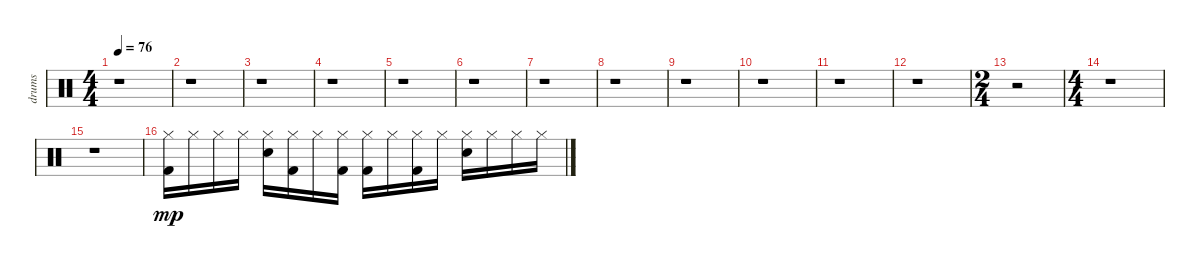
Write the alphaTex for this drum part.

\track ("drums" "drums") {instrument percussion}
\staff {score}
\articulation defaults
\ts (4 4)
\tempo 76
\clef neutral
\ks c
r.1{dy mp} |
r.1 |
r.1 |
r.1 |
r.1 |
r.1 |
r.1 |
r.1 |
r.1 |
r.1 |
r.1 |
r.1 |
\ts (2 4)
r.2 |
\ts (4 4)
r.1 |
r.1 |
("Hi-Hat (closed)" "Kick (hit) 2").16 "Hi-Hat (closed)".16 "Hi-Hat (closed)".16 "Hi-Hat (closed)".16 ("Hi-Hat (closed)" "Snare (hit) 2").16 ("Hi-Hat (closed)" "Kick (hit) 2").16 "Hi-Hat (closed)".16 ("Hi-Hat (closed)" "Kick (hit) 2").16 ("Hi-Hat (closed)" "Kick (hit) 2").16 "Hi-Hat (closed)".16 ("Hi-Hat (closed)" "Kick (hit) 2").16 "Hi-Hat (closed)".16 ("Snare (hit) 2" "Hi-Hat (closed)").16 "Hi-Hat (closed)".16 "Hi-Hat (closed)".16 "Hi-Hat (closed)".16
